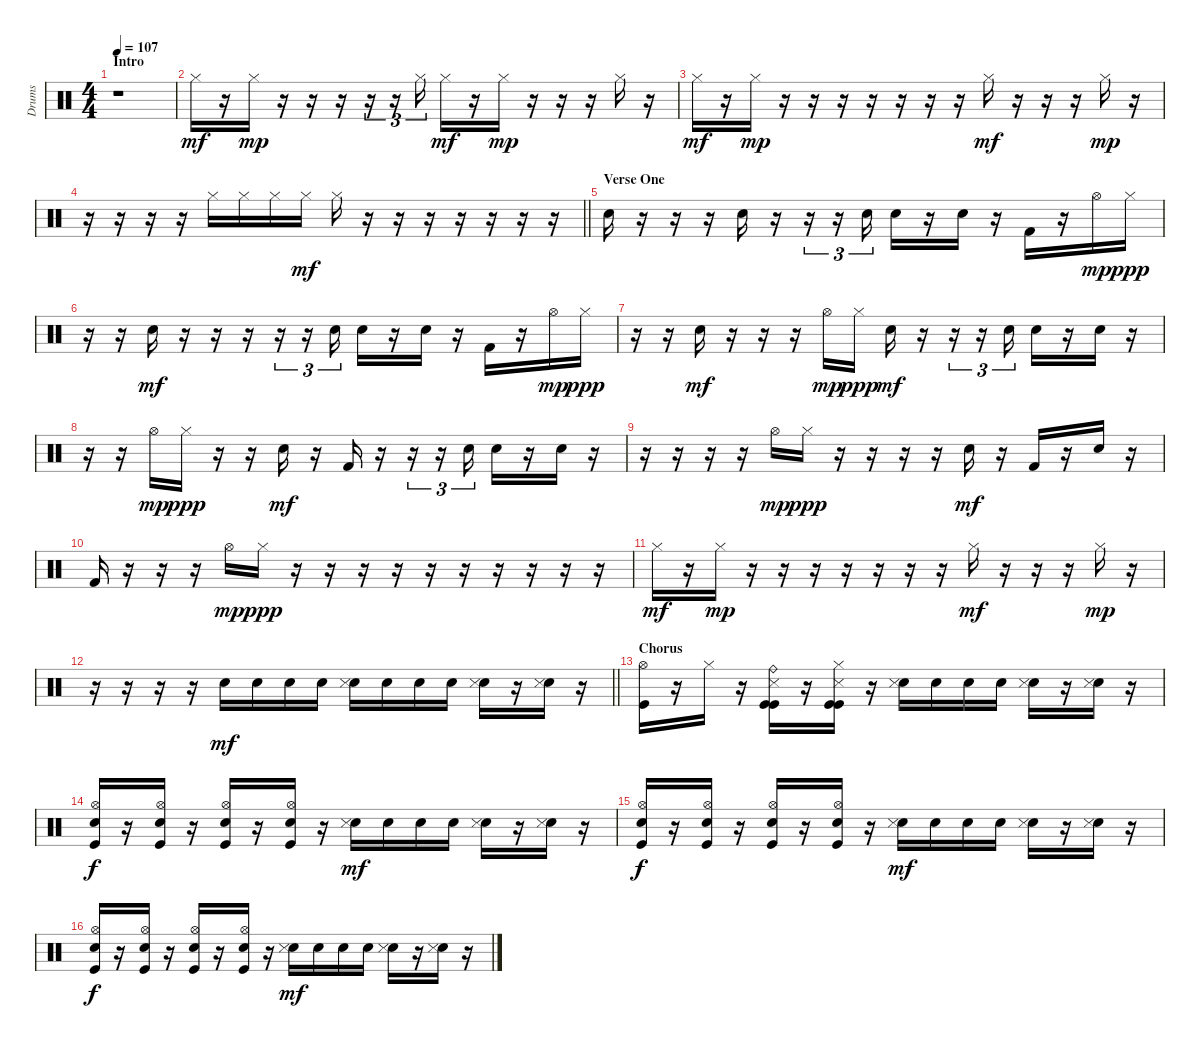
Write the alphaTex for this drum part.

\track ("Drums" "Drums") {instrument percussion}
\staff {score}
\articulation defaults
\ts (4 4)
\section ("" "Intro")
\tempo 107
\clef neutral
\ks c
r.1{dy mf} |
"Hi-Hat (closed)".16 r.16 "Hi-Hat (closed)".16{dy mp} r.16 r.16 r.16 r.16{tu (3 2)} r.16{tu (3 2)} "Hi-Hat (closed)".16{tu (3 2)} "Hi-Hat (closed)".16{dy mf} r.16 "Hi-Hat (closed)".16{dy mp} r.16 r.16 r.16 "Hi-Hat (closed)".16 r.16 |
"Hi-Hat (closed)".16{dy mf} r.16 "Hi-Hat (closed)".16{dy mp} r.16 r.16 r.16 r.16 r.16 r.16 r.16 "Hi-Hat (closed)".16{dy mf} r.16 r.16 r.16 "Hi-Hat (closed)".16{dy mp} r.16 |
\barLineRight lightlight
r.16 r.16 r.16 r.16 "Hi-Hat (closed)".16 "Hi-Hat (closed)".16 "Hi-Hat (closed)".16 "Hi-Hat (closed)".16{dy mf} "Hi-Hat (closed)".16 r.16 r.16 r.16 r.16 r.16 r.16 r.16 |
\section ("" "Verse One")
"Electric Snare (hit)".16 r.16 r.16 r.16 "Electric Snare (hit)".16 r.16 r.16{tu (3 2)} r.16{tu (3 2)} "Electric Snare (hit)".16{tu (3 2)} "Electric Snare (hit)".16 r.16 "Electric Snare (hit)".16 r.16 "Kick (hit) 2".16 r.16 "Hi-Hat (open)".16{dy mp} "Hi-Hat (closed)".16{dy ppp} |
r.16 r.16 "Electric Snare (hit)".16{dy mf} r.16 r.16 r.16 r.16{tu (3 2)} r.16{tu (3 2)} "Electric Snare (hit)".16{tu (3 2)} "Electric Snare (hit)".16 r.16 "Electric Snare (hit)".16 r.16 "Kick (hit) 2".16 r.16 "Hi-Hat (open)".16{dy mp} "Hi-Hat (closed)".16{dy ppp} |
r.16 r.16 "Electric Snare (hit)".16{dy mf} r.16 r.16 r.16 "Hi-Hat (open)".16{dy mp} "Hi-Hat (closed)".16{dy ppp} "Electric Snare (hit)".16{dy mf} r.16 r.16{tu (3 2)} r.16{tu (3 2)} "Electric Snare (hit)".16{tu (3 2)} "Electric Snare (hit)".16 r.16 "Electric Snare (hit)".16 r.16 |
r.16 r.16 "Hi-Hat (open)".16{dy mp} "Hi-Hat (closed)".16{dy ppp} r.16 r.16 "Electric Snare (hit)".16{dy mf} r.16 "Kick (hit) 2".16 r.16 r.16{tu (3 2)} r.16{tu (3 2)} "Electric Snare (hit)".16{tu (3 2)} "Electric Snare (hit)".16 r.16 "Electric Snare (hit)".16 r.16 |
r.16 r.16 r.16 r.16 "Hi-Hat (open)".16{dy mp} "Hi-Hat (closed)".16{dy ppp} r.16 r.16 r.16 r.16 "Electric Snare (hit)".16{dy mf} r.16 "Kick (hit) 2".16 r.16 "Electric Snare (hit)".16 r.16 |
"Kick (hit) 2".16 r.16 r.16 r.16 "Hi-Hat (open)".16{dy mp} "Hi-Hat (closed)".16{dy ppp} r.16 r.16 r.16 r.16 r.16 r.16 r.16 r.16 r.16 r.16 |
"Hi-Hat (closed)".16{dy mf} r.16 "Hi-Hat (closed)".16{dy mp} r.16 r.16 r.16 r.16 r.16 r.16 r.16 "Hi-Hat (closed)".16{dy mf} r.16 r.16 r.16 "Hi-Hat (closed)".16{dy mp} r.16 |
\barLineRight lightlight
r.16 r.16 r.16 r.16 "Electric Snare (hit)".16{dy mf} "Electric Snare (hit)".16 "Electric Snare (hit)".16 "Electric Snare (hit)".16 ("Electric Snare (hit)" "Snare (side stick) 3").16 "Electric Snare (hit)".16 "Electric Snare (hit)".16 "Electric Snare (hit)".16 ("Electric Snare (hit)" "Snare (side stick) 3").16 r.16 ("Electric Snare (hit)" "Snare (side stick) 3").16 r.16 |
\section ("" "Chorus")
("Hi-Hat (open)" "Kick (hit)").16 r.16 "Hi-Hat (closed)".16 r.16 ("Ride (bell)" "Kick (hit)" "Snare (side stick) 3" "Kick (hit)").16 r.16 ("Hi-Hat (closed)" "Kick (hit)" "Snare (side stick) 3" "Kick (hit)").16 r.16 ("Electric Snare (hit)" "Snare (side stick) 3").16 "Electric Snare (hit)".16 "Electric Snare (hit)".16 "Electric Snare (hit)".16 ("Electric Snare (hit)" "Snare (side stick) 3").16 r.16 ("Electric Snare (hit)" "Snare (side stick) 3").16 r.16 |
("Hi-Hat (open)" "Electric Snare (hit)" "Kick (hit)").16{dy f} r.16 ("Hi-Hat (open)" "Electric Snare (hit)" "Kick (hit)").16 r.16 ("Hi-Hat (open)" "Electric Snare (hit)" "Kick (hit)").16 r.16 ("Hi-Hat (open)" "Electric Snare (hit)" "Kick (hit)").16 r.16 ("Electric Snare (hit)" "Snare (side stick) 3").16{dy mf} "Electric Snare (hit)".16 "Electric Snare (hit)".16 "Electric Snare (hit)".16 ("Electric Snare (hit)" "Snare (side stick) 3").16 r.16 ("Electric Snare (hit)" "Snare (side stick) 3").16 r.16 |
("Hi-Hat (open)" "Electric Snare (hit)" "Kick (hit)").16{dy f} r.16 ("Hi-Hat (open)" "Electric Snare (hit)" "Kick (hit)").16 r.16 ("Hi-Hat (open)" "Electric Snare (hit)" "Kick (hit)").16 r.16 ("Hi-Hat (open)" "Electric Snare (hit)" "Kick (hit)").16 r.16 ("Electric Snare (hit)" "Snare (side stick) 3").16{dy mf} "Electric Snare (hit)".16 "Electric Snare (hit)".16 "Electric Snare (hit)".16 ("Electric Snare (hit)" "Snare (side stick) 3").16 r.16 ("Electric Snare (hit)" "Snare (side stick) 3").16 r.16 |
("Hi-Hat (open)" "Electric Snare (hit)" "Kick (hit)").16{dy f} r.16 ("Hi-Hat (open)" "Electric Snare (hit)" "Kick (hit)").16 r.16 ("Hi-Hat (open)" "Electric Snare (hit)" "Kick (hit)").16 r.16 ("Hi-Hat (open)" "Electric Snare (hit)" "Kick (hit)").16 r.16 ("Electric Snare (hit)" "Snare (side stick) 3").16{dy mf} "Electric Snare (hit)".16 "Electric Snare (hit)".16 "Electric Snare (hit)".16 ("Electric Snare (hit)" "Snare (side stick) 3").16 r.16 ("Electric Snare (hit)" "Snare (side stick) 3").16 r.16
